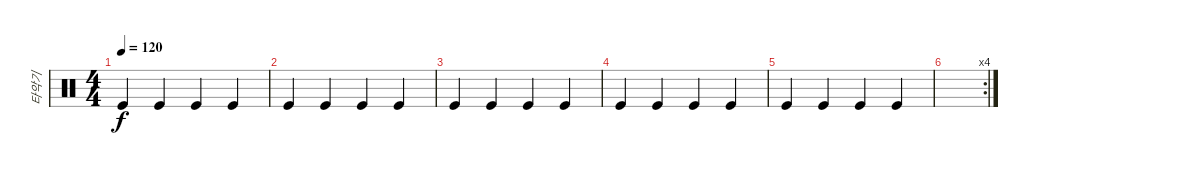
\track ("타악기" "타악기") {instrument percussion}
\staff {score}
\articulation defaults
\ts (4 4)
\tempo 120
\clef neutral
\ks c "Kick (hit)".4{dy f} "Kick (hit)".4 "Kick (hit)".4 "Kick (hit)".4
|
"Kick (hit)".4 "Kick (hit)".4 "Kick (hit)".4 "Kick (hit)".4 |
"Kick (hit)".4 "Kick (hit)".4 "Kick (hit)".4 "Kick (hit)".4 |
"Kick (hit)".4 "Kick (hit)".4 "Kick (hit)".4 "Kick (hit)".4 |
"Kick (hit)".4 "Kick (hit)".4 "Kick (hit)".4 "Kick (hit)".4 |
\rc 4
